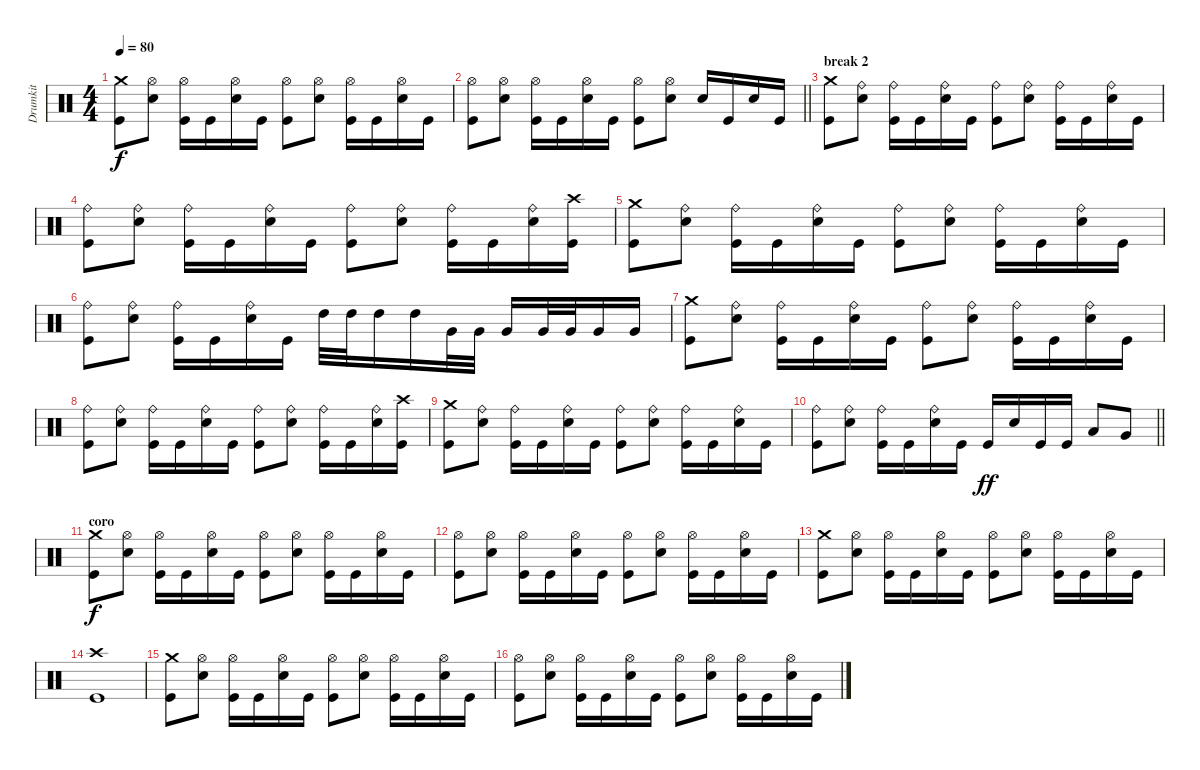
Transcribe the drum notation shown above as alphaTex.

\track ("Drumkit" "Drumkit") {instrument percussion}
\staff {score}
\articulation defaults
\ts (4 4)
\tempo 80
\clef neutral
\ks c
("Crash medium (hit)" "Kick (hit)").8{dy f} ("Hi-Hat (open)" "Snare (hit) 2").8 ("Hi-Hat (open)" "Kick (hit)").16 "Kick (hit)".16 ("Hi-Hat (open)" "Snare (hit) 2").16 "Kick (hit)".16 ("Hi-Hat (open)" "Kick (hit)").8 ("Hi-Hat (open)" "Snare (hit) 2").8 ("Hi-Hat (open)" "Kick (hit)").16 "Kick (hit)".16 ("Hi-Hat (open)" "Snare (hit) 2").16 "Kick (hit)".16 |
\barLineRight lightlight
("Hi-Hat (open)" "Kick (hit)").8 ("Hi-Hat (open)" "Snare (hit) 2").8 ("Hi-Hat (open)" "Kick (hit)").16 "Kick (hit)".16 ("Hi-Hat (open)" "Snare (hit) 2").16 "Kick (hit)".16 ("Hi-Hat (open)" "Kick (hit)").8 ("Hi-Hat (open)" "Snare (hit) 2").8 "Snare (hit) 2".16 "Kick (hit)".16 "Snare (hit) 2".16 "Kick (hit)".16 |
\section ("" "break 2")
("Crash medium (hit)" "Kick (hit)").8 ("Ride (bell)" "Snare (hit) 2").8 ("Ride (bell)" "Kick (hit)").16 "Kick (hit)".16 ("Ride (bell)" "Snare (hit) 2").16 "Kick (hit)".16 ("Ride (bell)" "Kick (hit)").8 ("Ride (bell)" "Snare (hit) 2").8 ("Ride (bell)" "Kick (hit)").16 "Kick (hit)".16 ("Ride (bell)" "Snare (hit) 2").16 "Kick (hit)".16 |
("Ride (bell)" "Kick (hit)").8 ("Ride (bell)" "Snare (hit) 2").8 ("Ride (bell)" "Kick (hit)").16 "Kick (hit)".16 ("Ride (bell)" "Snare (hit) 2").16 "Kick (hit)".16 ("Ride (bell)" "Kick (hit)").8 ("Ride (bell)" "Snare (hit) 2").8 ("Ride (bell)" "Kick (hit)").16 "Kick (hit)".16 ("Ride (bell)" "Snare (hit) 2").16 ("Crash high (hit)" "Kick (hit)").16 |
("Crash medium (hit)" "Kick (hit)").8 ("Ride (bell)" "Snare (hit) 2").8 ("Ride (bell)" "Kick (hit)").16 "Kick (hit)".16 ("Ride (bell)" "Snare (hit) 2").16 "Kick (hit)".16 ("Ride (bell)" "Kick (hit)").8 ("Ride (bell)" "Snare (hit) 2").8 ("Ride (bell)" "Kick (hit)").16 "Kick (hit)".16 ("Ride (bell)" "Snare (hit) 2").16 "Kick (hit)".16 |
("Ride (bell)" "Kick (hit)").8 ("Ride (bell)" "Snare (hit) 2").8 ("Ride (bell)" "Kick (hit)").16 "Kick (hit)".16 ("Ride (bell)" "Snare (hit) 2").16 "Kick (hit)".16 "High Tom (hit)".32 "High Tom (hit)".32 "High Tom (hit)".16 "High Tom (hit)".16 "Very Low Tom (hit)".32 "Very Low Tom (hit)".32 "Very Low Tom (hit)".16 "Very Low Tom (hit)".32 "Very Low Tom (hit)".32 "Very Low Tom (hit)".16 "Very Low Tom (hit)".16 |
("Crash medium (hit)" "Kick (hit)").8 ("Ride (bell)" "Snare (hit) 2").8 ("Ride (bell)" "Kick (hit)").16 "Kick (hit)".16 ("Ride (bell)" "Snare (hit) 2").16 "Kick (hit)".16 ("Ride (bell)" "Kick (hit)").8 ("Ride (bell)" "Snare (hit) 2").8 ("Ride (bell)" "Kick (hit)").16 "Kick (hit)".16 ("Ride (bell)" "Snare (hit) 2").16 "Kick (hit)".16 |
("Ride (bell)" "Kick (hit)").8 ("Ride (bell)" "Snare (hit) 2").8 ("Ride (bell)" "Kick (hit)").16 "Kick (hit)".16 ("Ride (bell)" "Snare (hit) 2").16 "Kick (hit)".16 ("Ride (bell)" "Kick (hit)").8 ("Ride (bell)" "Snare (hit) 2").8 ("Ride (bell)" "Kick (hit)").16 "Kick (hit)".16 ("Ride (bell)" "Snare (hit) 2").16 ("Crash high (hit)" "Kick (hit)").16 |
("Crash medium (hit)" "Kick (hit)").8 ("Ride (bell)" "Snare (hit) 2").8 ("Ride (bell)" "Kick (hit)").16 "Kick (hit)".16 ("Ride (bell)" "Snare (hit) 2").16 "Kick (hit)".16 ("Ride (bell)" "Kick (hit)").8 ("Ride (bell)" "Snare (hit) 2").8 ("Ride (bell)" "Kick (hit)").16 "Kick (hit)".16 ("Ride (bell)" "Snare (hit) 2").16 "Kick (hit)".16 |
\barLineRight lightlight
("Ride (bell)" "Kick (hit)").8 ("Ride (bell)" "Snare (hit) 2").8 ("Ride (bell)" "Kick (hit)").16 "Kick (hit)".16 ("Ride (bell)" "Snare (hit) 2").16 "Kick (hit)".16 "Kick (hit)".16{dy ff} "Snare (hit) 2".16 "Kick (hit)".16 "Kick (hit)".16 "Low Tom (hit)".8 "Very Low Tom (hit)".8 |
\section ("" "coro")
("Crash medium (hit)" "Kick (hit)").8{dy f} ("Hi-Hat (open)" "Snare (hit) 2").8 ("Hi-Hat (open)" "Kick (hit)").16 "Kick (hit)".16 ("Hi-Hat (open)" "Snare (hit) 2").16 "Kick (hit)".16 ("Hi-Hat (open)" "Kick (hit)").8 ("Hi-Hat (open)" "Snare (hit) 2").8 ("Hi-Hat (open)" "Kick (hit)").16 "Kick (hit)".16 ("Hi-Hat (open)" "Snare (hit) 2").16 "Kick (hit)".16 |
("Hi-Hat (open)" "Kick (hit)").8 ("Hi-Hat (open)" "Snare (hit) 2").8 ("Hi-Hat (open)" "Kick (hit)").16 "Kick (hit)".16 ("Hi-Hat (open)" "Snare (hit) 2").16 "Kick (hit)".16 ("Hi-Hat (open)" "Kick (hit)").8 ("Hi-Hat (open)" "Snare (hit) 2").8 ("Hi-Hat (open)" "Kick (hit)").16 "Kick (hit)".16 ("Hi-Hat (open)" "Snare (hit) 2").16 "Kick (hit)".16 |
("Crash medium (hit)" "Kick (hit)").8 ("Hi-Hat (open)" "Snare (hit) 2").8 ("Hi-Hat (open)" "Kick (hit)").16 "Kick (hit)".16 ("Hi-Hat (open)" "Snare (hit) 2").16 "Kick (hit)".16 ("Hi-Hat (open)" "Kick (hit)").8 ("Hi-Hat (open)" "Snare (hit) 2").8 ("Hi-Hat (open)" "Kick (hit)").16 "Kick (hit)".16 ("Hi-Hat (open)" "Snare (hit) 2").16 "Kick (hit)".16 |
("Crash high (hit)" "Kick (hit)").1 |
("Crash medium (hit)" "Kick (hit)").8 ("Hi-Hat (open)" "Snare (hit) 2").8 ("Hi-Hat (open)" "Kick (hit)").16 "Kick (hit)".16 ("Hi-Hat (open)" "Snare (hit) 2").16 "Kick (hit)".16 ("Hi-Hat (open)" "Kick (hit)").8 ("Hi-Hat (open)" "Snare (hit) 2").8 ("Hi-Hat (open)" "Kick (hit)").16 "Kick (hit)".16 ("Hi-Hat (open)" "Snare (hit) 2").16 "Kick (hit)".16 |
("Hi-Hat (open)" "Kick (hit)").8 ("Hi-Hat (open)" "Snare (hit) 2").8 ("Hi-Hat (open)" "Kick (hit)").16 "Kick (hit)".16 ("Hi-Hat (open)" "Snare (hit) 2").16 "Kick (hit)".16 ("Hi-Hat (open)" "Kick (hit)").8 ("Hi-Hat (open)" "Snare (hit) 2").8 ("Hi-Hat (open)" "Kick (hit)").16 "Kick (hit)".16 ("Hi-Hat (open)" "Snare (hit) 2").16 "Kick (hit)".16
